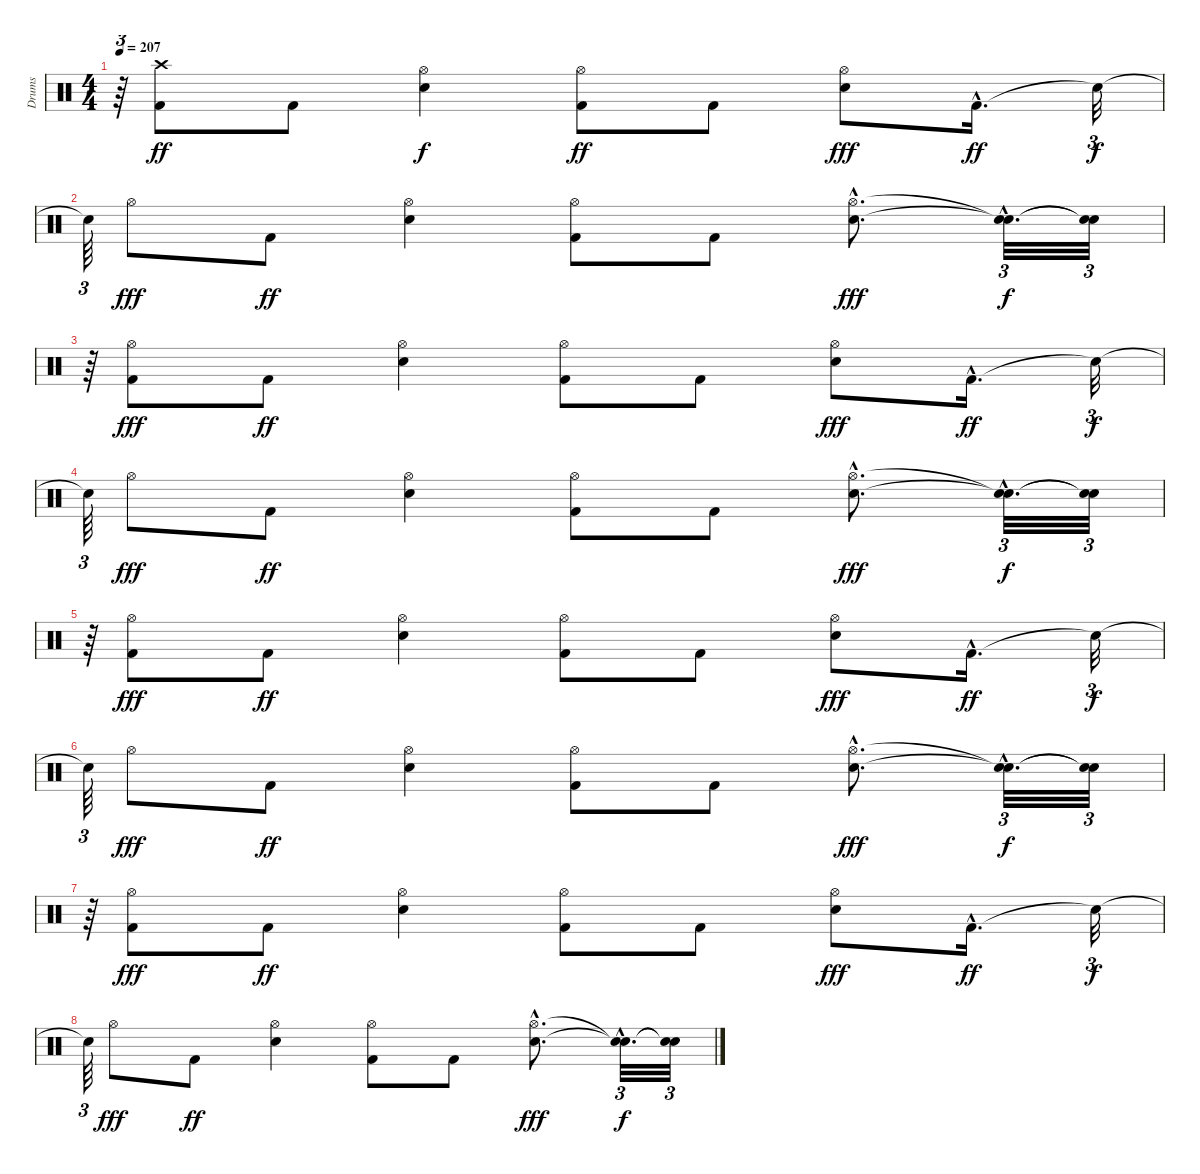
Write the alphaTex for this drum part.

\track ("Drums" "Drums") {instrument percussion}
\staff {score}
\articulation defaults
\ts (4 4)
\tempo 207
\clef neutral
\ks c
r.64{tu (3 2) dy fff} ("Crash high (hit)" "Kick (hit) 2").8{dy ff} "Kick (hit) 2".8 ("Hi-Hat (open)" "Snare (hit) 2").4{dy f} ("Kick (hit) 2" "Hi-Hat (open)").8{dy ff} "Kick (hit) 2".8 ("Snare (hit) 2" "Hi-Hat (open)").8{dy fff} "Kick (hit) 2"{hac}.16{d dy ff} "Snare (hit)"{t}.32{tu (3 2) dy f} |
"Snare (hit)"{t}.64{tu (3 2)} "Hi-Hat (open)".8{dy fff} "Kick (hit) 2".8{dy ff} ("Snare (hit) 2" "Hi-Hat (open)").4 ("Kick (hit) 2" "Hi-Hat (open)").8 "Kick (hit) 2".8 ("Snare (hit) 2"{hac} "Hi-Hat (open)"{hac}).8{d dy fff} ("Snare (hit)"{hac t} "Snare (hit)"{hac t}).32{d tu (3 2) dy f} ("Snare (hit)"{t} "Snare (hit)"{t}).32{tu (3 2)} |
r.64{tu (3 2)} ("Kick (hit) 2" "Hi-Hat (open)").8{dy fff} "Kick (hit) 2".8{dy ff} ("Snare (hit) 2" "Hi-Hat (open)").4 ("Kick (hit) 2" "Hi-Hat (open)").8 "Kick (hit) 2".8 ("Snare (hit) 2" "Hi-Hat (open)").8{dy fff} "Kick (hit) 2"{hac}.16{d dy ff} "Snare (hit)"{t}.32{tu (3 2) dy f} |
"Snare (hit)"{t}.64{tu (3 2)} "Hi-Hat (open)".8{dy fff} "Kick (hit) 2".8{dy ff} ("Snare (hit) 2" "Hi-Hat (open)").4 ("Kick (hit) 2" "Hi-Hat (open)").8 "Kick (hit) 2".8 ("Snare (hit) 2"{hac} "Hi-Hat (open)"{hac}).8{d dy fff} ("Snare (hit)"{hac t} "Snare (hit)"{hac t}).32{d tu (3 2) dy f} ("Snare (hit)"{t} "Snare (hit)"{t}).32{tu (3 2)} |
r.64{tu (3 2)} ("Kick (hit) 2" "Hi-Hat (open)").8{dy fff} "Kick (hit) 2".8{dy ff} ("Snare (hit) 2" "Hi-Hat (open)").4 ("Kick (hit) 2" "Hi-Hat (open)").8 "Kick (hit) 2".8 ("Snare (hit) 2" "Hi-Hat (open)").8{dy fff} "Kick (hit) 2"{hac}.16{d dy ff} "Snare (hit)"{t}.32{tu (3 2) dy f} |
"Snare (hit)"{t}.64{tu (3 2)} "Hi-Hat (open)".8{dy fff} "Kick (hit) 2".8{dy ff} ("Snare (hit) 2" "Hi-Hat (open)").4 ("Kick (hit) 2" "Hi-Hat (open)").8 "Kick (hit) 2".8 ("Snare (hit) 2"{hac} "Hi-Hat (open)"{hac}).8{d dy fff} ("Snare (hit)"{hac t} "Snare (hit)"{hac t}).32{d tu (3 2) dy f} ("Snare (hit)"{t} "Snare (hit)"{t}).32{tu (3 2)} |
r.64{tu (3 2)} ("Kick (hit) 2" "Hi-Hat (open)").8{dy fff} "Kick (hit) 2".8{dy ff} ("Snare (hit) 2" "Hi-Hat (open)").4 ("Kick (hit) 2" "Hi-Hat (open)").8 "Kick (hit) 2".8 ("Snare (hit) 2" "Hi-Hat (open)").8{dy fff} "Kick (hit) 2"{hac}.16{d dy ff} "Snare (hit)"{t}.32{tu (3 2) dy f} |
"Snare (hit)"{t}.64{tu (3 2)} "Hi-Hat (open)".8{dy fff} "Kick (hit) 2".8{dy ff} ("Snare (hit) 2" "Hi-Hat (open)").4 ("Kick (hit) 2" "Hi-Hat (open)").8 "Kick (hit) 2".8 ("Snare (hit) 2"{hac} "Hi-Hat (open)"{hac}).8{d dy fff} ("Snare (hit)"{hac t} "Snare (hit)"{hac t}).32{d tu (3 2) dy f} ("Snare (hit)"{t} "Snare (hit)"{t}).32{tu (3 2)}
